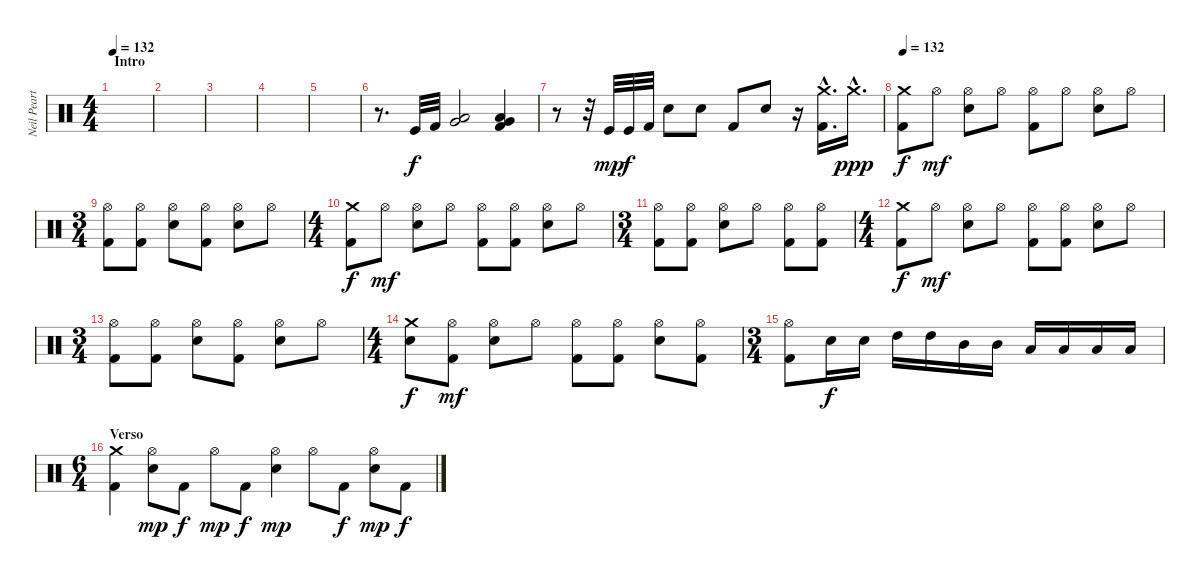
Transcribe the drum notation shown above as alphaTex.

\track ("Neil Peart" "Neil Peart") {instrument percussion}
\staff {score}
\articulation defaults
\ts (4 4)
\section ("" "Intro")
\tempo 132
\tempo 130
\tempo 132
\clef neutral
\ks c
|
|
|
|
|
r.8{d} "Kick (hit)".32 "Kick (hit) 2".32 ("Very Low Tom (hit)" "Low Floor Tom (hit)").2 ("Very Low Tom (hit)" "Low Floor Tom (hit)" "Kick (hit) 2").4 |
r.8 r.32 "Kick (hit)".32{dy mp} "Kick (hit)".32{dy f} "Kick (hit) 2".32 "Electric Snare (hit)".8 "Electric Snare (hit)".8 "Kick (hit) 2".8 "Electric Snare (hit)".8 r.16 ("Crash medium (hit)"{hac} "Kick (hit) 2"{hac}).16{d} "Crash medium (hit)"{hac}.16{d dy ppp} |
\tempo 132
("Crash medium (hit)" "Kick (hit) 2").8{dy f} "Hi-Hat (open)".8{dy mf} ("Hi-Hat (open)" "Electric Snare (hit)").8 "Hi-Hat (open)".8 ("Hi-Hat (open)" "Kick (hit) 2").8 "Hi-Hat (open)".8 ("Hi-Hat (open)" "Electric Snare (hit)").8 "Hi-Hat (open)".8 |
\ts (3 4)
("Hi-Hat (open)" "Kick (hit) 2").8 ("Hi-Hat (open)" "Kick (hit) 2").8 ("Hi-Hat (open)" "Electric Snare (hit)").8 ("Hi-Hat (open)" "Kick (hit) 2").8 ("Hi-Hat (open)" "Electric Snare (hit)").8 "Hi-Hat (open)".8 |
\ts (4 4)
("Crash medium (hit)" "Kick (hit) 2").8{dy f} "Hi-Hat (open)".8{dy mf} ("Hi-Hat (open)" "Electric Snare (hit)").8 "Hi-Hat (open)".8 ("Hi-Hat (open)" "Kick (hit) 2").8 ("Hi-Hat (open)" "Kick (hit) 2").8 ("Hi-Hat (open)" "Electric Snare (hit)").8 "Hi-Hat (open)".8 |
\ts (3 4)
("Hi-Hat (open)" "Kick (hit) 2").8 ("Hi-Hat (open)" "Kick (hit) 2").8 ("Hi-Hat (open)" "Electric Snare (hit)").8 "Hi-Hat (open)".8 ("Hi-Hat (open)" "Kick (hit) 2").8 ("Hi-Hat (open)" "Kick (hit) 2").8 |
\ts (4 4)
("Crash medium (hit)" "Kick (hit) 2").8{dy f} "Hi-Hat (open)".8{dy mf} ("Hi-Hat (open)" "Electric Snare (hit)").8 "Hi-Hat (open)".8 ("Hi-Hat (open)" "Kick (hit) 2").8 ("Hi-Hat (open)" "Kick (hit) 2").8 ("Hi-Hat (open)" "Electric Snare (hit)").8 "Hi-Hat (open)".8 |
\ts (3 4)
("Hi-Hat (open)" "Kick (hit) 2").8 ("Hi-Hat (open)" "Kick (hit) 2").8 ("Hi-Hat (open)" "Electric Snare (hit)").8 ("Hi-Hat (open)" "Kick (hit) 2").8 ("Hi-Hat (open)" "Electric Snare (hit)").8 "Hi-Hat (open)".8 |
\ts (4 4)
("Crash medium (hit)" "Electric Snare (hit)").8{dy f} ("Hi-Hat (open)" "Kick (hit) 2").8{dy mf} ("Hi-Hat (open)" "Electric Snare (hit)").8 "Hi-Hat (open)".8 ("Hi-Hat (open)" "Kick (hit) 2").8 ("Hi-Hat (open)" "Kick (hit) 2").8 ("Hi-Hat (open)" "Electric Snare (hit)").8 ("Hi-Hat (open)" "Kick (hit) 2").8 |
\ts (3 4)
("Hi-Hat (open)" "Kick (hit) 2").8 "Electric Snare (hit)".16{dy f} "Electric Snare (hit)".16 "High Tom (hit)".16 "High Tom (hit)".16 "Mid Tom (hit)".16 "Mid Tom (hit)".16 "Low Tom (hit)".16 "Low Tom (hit)".16 "Low Floor Tom (hit)".16 "Low Floor Tom (hit)".16 |
\ts (6 4)
\section ("" "Verso")
("Crash medium (hit)" "Kick (hit) 2").4 ("Hi-Hat (open)" "Electric Snare (hit)").8{dy mp} "Kick (hit) 2".8{dy f} "Hi-Hat (open)".8{dy mp} "Kick (hit) 2".8{dy f} ("Hi-Hat (open)" "Electric Snare (hit)").4{dy mp} "Hi-Hat (open)".8 "Kick (hit) 2".8{dy f} ("Hi-Hat (open)" "Electric Snare (hit)").8{dy mp} "Kick (hit) 2".8{dy f}
